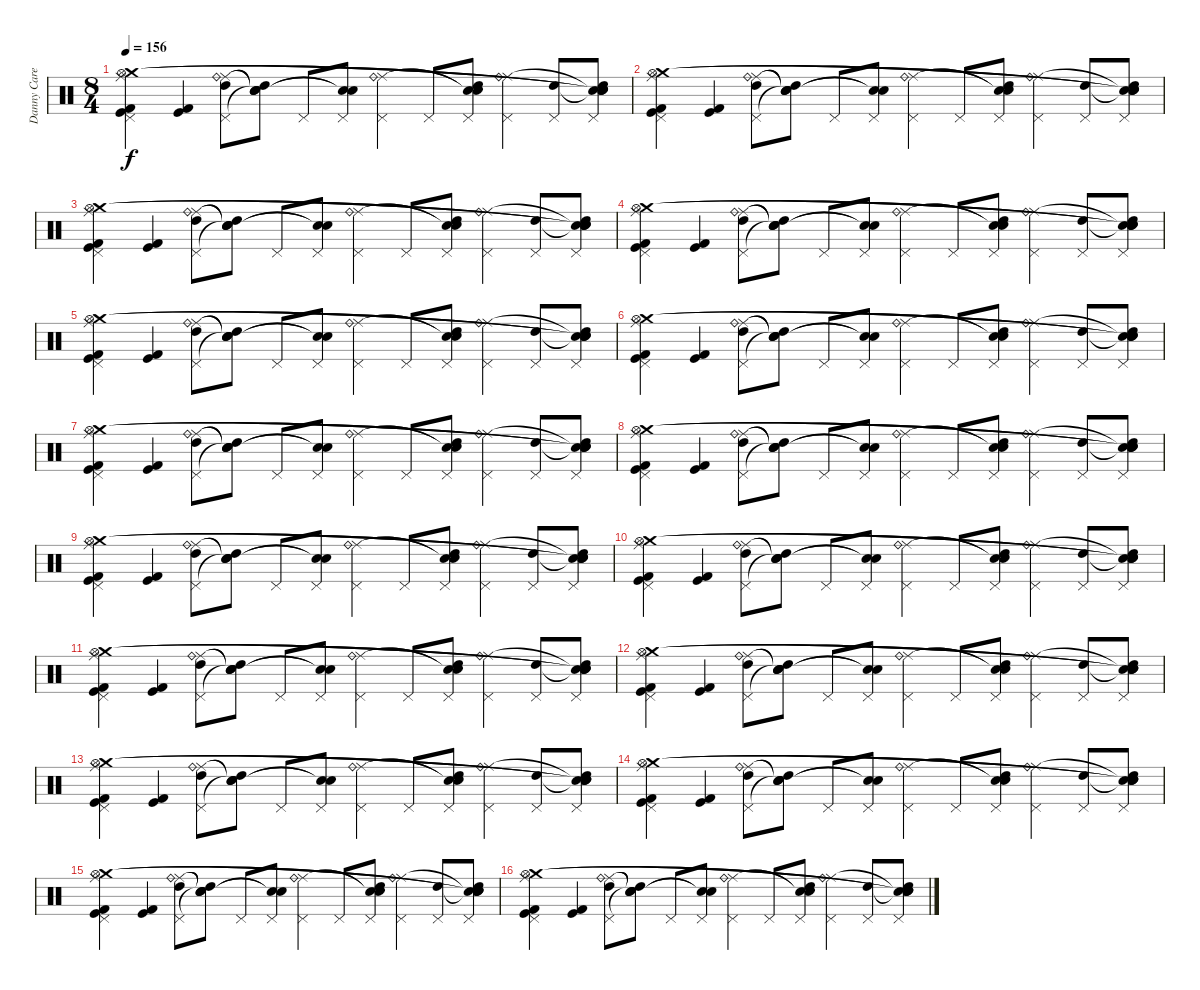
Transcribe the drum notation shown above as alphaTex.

\track ("Danny Carey " "Danny Care") {instrument percussion}
\staff {score}
\articulation defaults
\ts (8 4)
\tempo 156
\clef neutral
\ks c
("Ride (middle)" "Pedal Hi-Hat (hit)" "Kick (hit)" "Kick (hit) 2" "Crash medium (hit)" "Hi-Hat (open)").4{dy f volume 14} ("Kick (hit)" "Kick (hit) 2").4 ("Pedal Hi-Hat (hit)" "Ride (middle)" "Ride (bell)" "High Tom (hit)").8 ("Snare (hit)"{t} "Snare (hit)"{t} "Snare (hit)"{t} "High Tom (hit)").8 "Pedal Hi-Hat (hit)".8 ("Pedal Hi-Hat (hit)" "Snare (hit)"{t} "Snare (hit)"{t}).8 ("Pedal Hi-Hat (hit)" "Ride (middle)" "Ride (bell)").4 "Pedal Hi-Hat (hit)".8 ("Pedal Hi-Hat (hit)" "Snare (hit)"{t} "Snare (hit)"{t} "High Tom (hit)").8 ("Pedal Hi-Hat (hit)" "Ride (middle)" "Ride (bell)").4 ("Pedal Hi-Hat (hit)" "High Tom (hit)").8 ("Pedal Hi-Hat (hit)" "Snare (hit)"{t} "Snare (hit)"{t} "High Tom (hit)" "Snare (hit)"{t} "Snare (hit)"{t}).8 |
("Ride (middle)" "Pedal Hi-Hat (hit)" "Kick (hit)" "Kick (hit) 2" "Crash medium (hit)" "Hi-Hat (open)").4{volume 14} ("Kick (hit)" "Kick (hit) 2").4 ("Pedal Hi-Hat (hit)" "Ride (middle)" "Ride (bell)" "High Tom (hit)").8 ("Snare (hit)"{t} "Snare (hit)"{t} "Snare (hit)"{t} "High Tom (hit)").8 "Pedal Hi-Hat (hit)".8 ("Pedal Hi-Hat (hit)" "Snare (hit)"{t} "Snare (hit)"{t}).8 ("Pedal Hi-Hat (hit)" "Ride (middle)" "Ride (bell)").4 "Pedal Hi-Hat (hit)".8 ("Pedal Hi-Hat (hit)" "Snare (hit)"{t} "Snare (hit)"{t} "High Tom (hit)").8 ("Pedal Hi-Hat (hit)" "Ride (middle)" "Ride (bell)").4 ("Pedal Hi-Hat (hit)" "High Tom (hit)").8 ("Pedal Hi-Hat (hit)" "Snare (hit)"{t} "Snare (hit)"{t} "High Tom (hit)" "Snare (hit)"{t} "Snare (hit)"{t}).8 |
("Ride (middle)" "Pedal Hi-Hat (hit)" "Kick (hit)" "Kick (hit) 2" "Crash medium (hit)" "Hi-Hat (open)").4{volume 14} ("Kick (hit)" "Kick (hit) 2").4 ("Pedal Hi-Hat (hit)" "Ride (middle)" "Ride (bell)" "High Tom (hit)").8 ("Snare (hit)"{t} "Snare (hit)"{t} "Snare (hit)"{t} "High Tom (hit)").8 "Pedal Hi-Hat (hit)".8 ("Pedal Hi-Hat (hit)" "Snare (hit)"{t} "Snare (hit)"{t}).8 ("Pedal Hi-Hat (hit)" "Ride (middle)" "Ride (bell)").4 "Pedal Hi-Hat (hit)".8 ("Pedal Hi-Hat (hit)" "Snare (hit)"{t} "Snare (hit)"{t} "High Tom (hit)").8 ("Pedal Hi-Hat (hit)" "Ride (middle)" "Ride (bell)").4 ("Pedal Hi-Hat (hit)" "High Tom (hit)").8 ("Pedal Hi-Hat (hit)" "Snare (hit)"{t} "Snare (hit)"{t} "High Tom (hit)" "Snare (hit)"{t} "Snare (hit)"{t}).8 |
("Ride (middle)" "Pedal Hi-Hat (hit)" "Kick (hit)" "Kick (hit) 2" "Crash medium (hit)" "Hi-Hat (open)").4{volume 14} ("Kick (hit)" "Kick (hit) 2").4 ("Pedal Hi-Hat (hit)" "Ride (middle)" "Ride (bell)" "High Tom (hit)").8 ("Snare (hit)"{t} "Snare (hit)"{t} "Snare (hit)"{t} "High Tom (hit)").8 "Pedal Hi-Hat (hit)".8 ("Pedal Hi-Hat (hit)" "Snare (hit)"{t} "Snare (hit)"{t}).8 ("Pedal Hi-Hat (hit)" "Ride (middle)" "Ride (bell)").4 "Pedal Hi-Hat (hit)".8 ("Pedal Hi-Hat (hit)" "Snare (hit)"{t} "Snare (hit)"{t} "High Tom (hit)").8 ("Pedal Hi-Hat (hit)" "Ride (middle)" "Ride (bell)").4 ("Pedal Hi-Hat (hit)" "High Tom (hit)").8 ("Pedal Hi-Hat (hit)" "Snare (hit)"{t} "Snare (hit)"{t} "High Tom (hit)" "Snare (hit)"{t} "Snare (hit)"{t}).8 |
("Ride (middle)" "Pedal Hi-Hat (hit)" "Kick (hit)" "Kick (hit) 2" "Crash medium (hit)" "Hi-Hat (open)").4{volume 14} ("Kick (hit)" "Kick (hit) 2").4 ("Pedal Hi-Hat (hit)" "Ride (middle)" "Ride (bell)" "High Tom (hit)").8 ("Snare (hit)"{t} "Snare (hit)"{t} "Snare (hit)"{t} "High Tom (hit)").8 "Pedal Hi-Hat (hit)".8 ("Pedal Hi-Hat (hit)" "Snare (hit)"{t} "Snare (hit)"{t}).8 ("Pedal Hi-Hat (hit)" "Ride (middle)" "Ride (bell)").4 "Pedal Hi-Hat (hit)".8 ("Pedal Hi-Hat (hit)" "Snare (hit)"{t} "Snare (hit)"{t} "High Tom (hit)").8 ("Pedal Hi-Hat (hit)" "Ride (middle)" "Ride (bell)").4 ("Pedal Hi-Hat (hit)" "High Tom (hit)").8 ("Pedal Hi-Hat (hit)" "Snare (hit)"{t} "Snare (hit)"{t} "High Tom (hit)" "Snare (hit)"{t} "Snare (hit)"{t}).8 |
("Ride (middle)" "Pedal Hi-Hat (hit)" "Kick (hit)" "Kick (hit) 2" "Crash medium (hit)" "Hi-Hat (open)").4{volume 14} ("Kick (hit)" "Kick (hit) 2").4 ("Pedal Hi-Hat (hit)" "Ride (middle)" "Ride (bell)" "High Tom (hit)").8 ("Snare (hit)"{t} "Snare (hit)"{t} "Snare (hit)"{t} "High Tom (hit)").8 "Pedal Hi-Hat (hit)".8 ("Pedal Hi-Hat (hit)" "Snare (hit)"{t} "Snare (hit)"{t}).8 ("Pedal Hi-Hat (hit)" "Ride (middle)" "Ride (bell)").4 "Pedal Hi-Hat (hit)".8 ("Pedal Hi-Hat (hit)" "Snare (hit)"{t} "Snare (hit)"{t} "High Tom (hit)").8 ("Pedal Hi-Hat (hit)" "Ride (middle)" "Ride (bell)").4 ("Pedal Hi-Hat (hit)" "High Tom (hit)").8 ("Pedal Hi-Hat (hit)" "Snare (hit)"{t} "Snare (hit)"{t} "High Tom (hit)" "Snare (hit)"{t} "Snare (hit)"{t}).8 |
("Ride (middle)" "Pedal Hi-Hat (hit)" "Kick (hit)" "Kick (hit) 2" "Crash medium (hit)" "Hi-Hat (open)").4{volume 14} ("Kick (hit)" "Kick (hit) 2").4 ("Pedal Hi-Hat (hit)" "Ride (middle)" "Ride (bell)" "High Tom (hit)").8 ("Snare (hit)"{t} "Snare (hit)"{t} "Snare (hit)"{t} "High Tom (hit)").8 "Pedal Hi-Hat (hit)".8 ("Pedal Hi-Hat (hit)" "Snare (hit)"{t} "Snare (hit)"{t}).8 ("Pedal Hi-Hat (hit)" "Ride (middle)" "Ride (bell)").4 "Pedal Hi-Hat (hit)".8 ("Pedal Hi-Hat (hit)" "Snare (hit)"{t} "Snare (hit)"{t} "High Tom (hit)").8 ("Pedal Hi-Hat (hit)" "Ride (middle)" "Ride (bell)").4 ("Pedal Hi-Hat (hit)" "High Tom (hit)").8 ("Pedal Hi-Hat (hit)" "Snare (hit)"{t} "Snare (hit)"{t} "High Tom (hit)" "Snare (hit)"{t} "Snare (hit)"{t}).8 |
("Ride (middle)" "Pedal Hi-Hat (hit)" "Kick (hit)" "Kick (hit) 2" "Crash medium (hit)" "Hi-Hat (open)").4{volume 14} ("Kick (hit)" "Kick (hit) 2").4 ("Pedal Hi-Hat (hit)" "Ride (middle)" "Ride (bell)" "High Tom (hit)").8 ("Snare (hit)"{t} "Snare (hit)"{t} "Snare (hit)"{t} "High Tom (hit)").8 "Pedal Hi-Hat (hit)".8 ("Pedal Hi-Hat (hit)" "Snare (hit)"{t} "Snare (hit)"{t}).8 ("Pedal Hi-Hat (hit)" "Ride (middle)" "Ride (bell)").4 "Pedal Hi-Hat (hit)".8 ("Pedal Hi-Hat (hit)" "Snare (hit)"{t} "Snare (hit)"{t} "High Tom (hit)").8 ("Pedal Hi-Hat (hit)" "Ride (middle)" "Ride (bell)").4 ("Pedal Hi-Hat (hit)" "High Tom (hit)").8 ("Pedal Hi-Hat (hit)" "Snare (hit)"{t} "Snare (hit)"{t} "High Tom (hit)" "Snare (hit)"{t} "Snare (hit)"{t}).8 |
("Ride (middle)" "Pedal Hi-Hat (hit)" "Kick (hit)" "Kick (hit) 2" "Crash medium (hit)" "Hi-Hat (open)").4{volume 14} ("Kick (hit)" "Kick (hit) 2").4 ("Pedal Hi-Hat (hit)" "Ride (middle)" "Ride (bell)" "High Tom (hit)").8 ("Snare (hit)"{t} "Snare (hit)"{t} "Snare (hit)"{t} "High Tom (hit)").8 "Pedal Hi-Hat (hit)".8 ("Pedal Hi-Hat (hit)" "Snare (hit)"{t} "Snare (hit)"{t}).8 ("Pedal Hi-Hat (hit)" "Ride (middle)" "Ride (bell)").4 "Pedal Hi-Hat (hit)".8 ("Pedal Hi-Hat (hit)" "Snare (hit)"{t} "Snare (hit)"{t} "High Tom (hit)").8 ("Pedal Hi-Hat (hit)" "Ride (middle)" "Ride (bell)").4 ("Pedal Hi-Hat (hit)" "High Tom (hit)").8 ("Pedal Hi-Hat (hit)" "Snare (hit)"{t} "Snare (hit)"{t} "High Tom (hit)" "Snare (hit)"{t} "Snare (hit)"{t}).8 |
("Ride (middle)" "Pedal Hi-Hat (hit)" "Kick (hit)" "Kick (hit) 2" "Crash medium (hit)" "Hi-Hat (open)").4{volume 14} ("Kick (hit)" "Kick (hit) 2").4 ("Pedal Hi-Hat (hit)" "Ride (middle)" "Ride (bell)" "High Tom (hit)").8 ("Snare (hit)"{t} "Snare (hit)"{t} "Snare (hit)"{t} "High Tom (hit)").8 "Pedal Hi-Hat (hit)".8 ("Pedal Hi-Hat (hit)" "Snare (hit)"{t} "Snare (hit)"{t}).8 ("Pedal Hi-Hat (hit)" "Ride (middle)" "Ride (bell)").4 "Pedal Hi-Hat (hit)".8 ("Pedal Hi-Hat (hit)" "Snare (hit)"{t} "Snare (hit)"{t} "High Tom (hit)").8 ("Pedal Hi-Hat (hit)" "Ride (middle)" "Ride (bell)").4 ("Pedal Hi-Hat (hit)" "High Tom (hit)").8 ("Pedal Hi-Hat (hit)" "Snare (hit)"{t} "Snare (hit)"{t} "High Tom (hit)" "Snare (hit)"{t} "Snare (hit)"{t}).8 |
("Ride (middle)" "Pedal Hi-Hat (hit)" "Kick (hit)" "Kick (hit) 2" "Crash medium (hit)" "Hi-Hat (open)").4{volume 14} ("Kick (hit)" "Kick (hit) 2").4 ("Pedal Hi-Hat (hit)" "Ride (middle)" "Ride (bell)" "High Tom (hit)").8 ("Snare (hit)"{t} "Snare (hit)"{t} "Snare (hit)"{t} "High Tom (hit)").8 "Pedal Hi-Hat (hit)".8 ("Pedal Hi-Hat (hit)" "Snare (hit)"{t} "Snare (hit)"{t}).8 ("Pedal Hi-Hat (hit)" "Ride (middle)" "Ride (bell)").4 "Pedal Hi-Hat (hit)".8 ("Pedal Hi-Hat (hit)" "Snare (hit)"{t} "Snare (hit)"{t} "High Tom (hit)").8 ("Pedal Hi-Hat (hit)" "Ride (middle)" "Ride (bell)").4 ("Pedal Hi-Hat (hit)" "High Tom (hit)").8 ("Pedal Hi-Hat (hit)" "Snare (hit)"{t} "Snare (hit)"{t} "High Tom (hit)" "Snare (hit)"{t} "Snare (hit)"{t}).8 |
("Ride (middle)" "Pedal Hi-Hat (hit)" "Kick (hit)" "Kick (hit) 2" "Crash medium (hit)" "Hi-Hat (open)").4{volume 14} ("Kick (hit)" "Kick (hit) 2").4 ("Pedal Hi-Hat (hit)" "Ride (middle)" "Ride (bell)" "High Tom (hit)").8 ("Snare (hit)"{t} "Snare (hit)"{t} "Snare (hit)"{t} "High Tom (hit)").8 "Pedal Hi-Hat (hit)".8 ("Pedal Hi-Hat (hit)" "Snare (hit)"{t} "Snare (hit)"{t}).8 ("Pedal Hi-Hat (hit)" "Ride (middle)" "Ride (bell)").4 "Pedal Hi-Hat (hit)".8 ("Pedal Hi-Hat (hit)" "Snare (hit)"{t} "Snare (hit)"{t} "High Tom (hit)").8 ("Pedal Hi-Hat (hit)" "Ride (middle)" "Ride (bell)").4 ("Pedal Hi-Hat (hit)" "High Tom (hit)").8 ("Pedal Hi-Hat (hit)" "Snare (hit)"{t} "Snare (hit)"{t} "High Tom (hit)" "Snare (hit)"{t} "Snare (hit)"{t}).8 |
("Ride (middle)" "Pedal Hi-Hat (hit)" "Kick (hit)" "Kick (hit) 2" "Crash medium (hit)" "Hi-Hat (open)").4{volume 14} ("Kick (hit)" "Kick (hit) 2").4 ("Pedal Hi-Hat (hit)" "Ride (middle)" "Ride (bell)" "High Tom (hit)").8 ("Snare (hit)"{t} "Snare (hit)"{t} "Snare (hit)"{t} "High Tom (hit)").8 "Pedal Hi-Hat (hit)".8 ("Pedal Hi-Hat (hit)" "Snare (hit)"{t} "Snare (hit)"{t}).8 ("Pedal Hi-Hat (hit)" "Ride (middle)" "Ride (bell)").4 "Pedal Hi-Hat (hit)".8 ("Pedal Hi-Hat (hit)" "Snare (hit)"{t} "Snare (hit)"{t} "High Tom (hit)").8 ("Pedal Hi-Hat (hit)" "Ride (middle)" "Ride (bell)").4 ("Pedal Hi-Hat (hit)" "High Tom (hit)").8 ("Pedal Hi-Hat (hit)" "Snare (hit)"{t} "Snare (hit)"{t} "High Tom (hit)" "Snare (hit)"{t} "Snare (hit)"{t}).8 |
("Ride (middle)" "Pedal Hi-Hat (hit)" "Kick (hit)" "Kick (hit) 2" "Crash medium (hit)" "Hi-Hat (open)").4{volume 14} ("Kick (hit)" "Kick (hit) 2").4 ("Pedal Hi-Hat (hit)" "Ride (middle)" "Ride (bell)" "High Tom (hit)").8 ("Snare (hit)"{t} "Snare (hit)"{t} "Snare (hit)"{t} "High Tom (hit)").8 "Pedal Hi-Hat (hit)".8 ("Pedal Hi-Hat (hit)" "Snare (hit)"{t} "Snare (hit)"{t}).8 ("Pedal Hi-Hat (hit)" "Ride (middle)" "Ride (bell)").4 "Pedal Hi-Hat (hit)".8 ("Pedal Hi-Hat (hit)" "Snare (hit)"{t} "Snare (hit)"{t} "High Tom (hit)").8 ("Pedal Hi-Hat (hit)" "Ride (middle)" "Ride (bell)").4 ("Pedal Hi-Hat (hit)" "High Tom (hit)").8 ("Pedal Hi-Hat (hit)" "Snare (hit)"{t} "Snare (hit)"{t} "High Tom (hit)" "Snare (hit)"{t} "Snare (hit)"{t}).8 |
("Ride (middle)" "Pedal Hi-Hat (hit)" "Kick (hit)" "Kick (hit) 2" "Crash medium (hit)" "Hi-Hat (open)").4{volume 14} ("Kick (hit)" "Kick (hit) 2").4 ("Pedal Hi-Hat (hit)" "Ride (middle)" "Ride (bell)" "High Tom (hit)").8 ("Snare (hit)"{t} "Snare (hit)"{t} "Snare (hit)"{t} "High Tom (hit)").8 "Pedal Hi-Hat (hit)".8 ("Pedal Hi-Hat (hit)" "Snare (hit)"{t} "Snare (hit)"{t}).8 ("Pedal Hi-Hat (hit)" "Ride (middle)" "Ride (bell)").4 "Pedal Hi-Hat (hit)".8 ("Pedal Hi-Hat (hit)" "Snare (hit)"{t} "Snare (hit)"{t} "High Tom (hit)").8 ("Pedal Hi-Hat (hit)" "Ride (middle)" "Ride (bell)").4 ("Pedal Hi-Hat (hit)" "High Tom (hit)").8 ("Pedal Hi-Hat (hit)" "Snare (hit)"{t} "Snare (hit)"{t} "High Tom (hit)" "Snare (hit)"{t} "Snare (hit)"{t}).8 |
("Ride (middle)" "Pedal Hi-Hat (hit)" "Kick (hit)" "Kick (hit) 2" "Crash medium (hit)" "Hi-Hat (open)").4{volume 14} ("Kick (hit)" "Kick (hit) 2").4 ("Pedal Hi-Hat (hit)" "Ride (middle)" "Ride (bell)" "High Tom (hit)").8 ("Snare (hit)"{t} "Snare (hit)"{t} "Snare (hit)"{t} "High Tom (hit)").8 "Pedal Hi-Hat (hit)".8 ("Pedal Hi-Hat (hit)" "Snare (hit)"{t} "Snare (hit)"{t}).8 ("Pedal Hi-Hat (hit)" "Ride (middle)" "Ride (bell)").4 "Pedal Hi-Hat (hit)".8 ("Pedal Hi-Hat (hit)" "Snare (hit)"{t} "Snare (hit)"{t} "High Tom (hit)").8 ("Pedal Hi-Hat (hit)" "Ride (middle)" "Ride (bell)").4 ("Pedal Hi-Hat (hit)" "High Tom (hit)").8 ("Pedal Hi-Hat (hit)" "Snare (hit)"{t} "Snare (hit)"{t} "High Tom (hit)" "Snare (hit)"{t} "Snare (hit)"{t}).8
